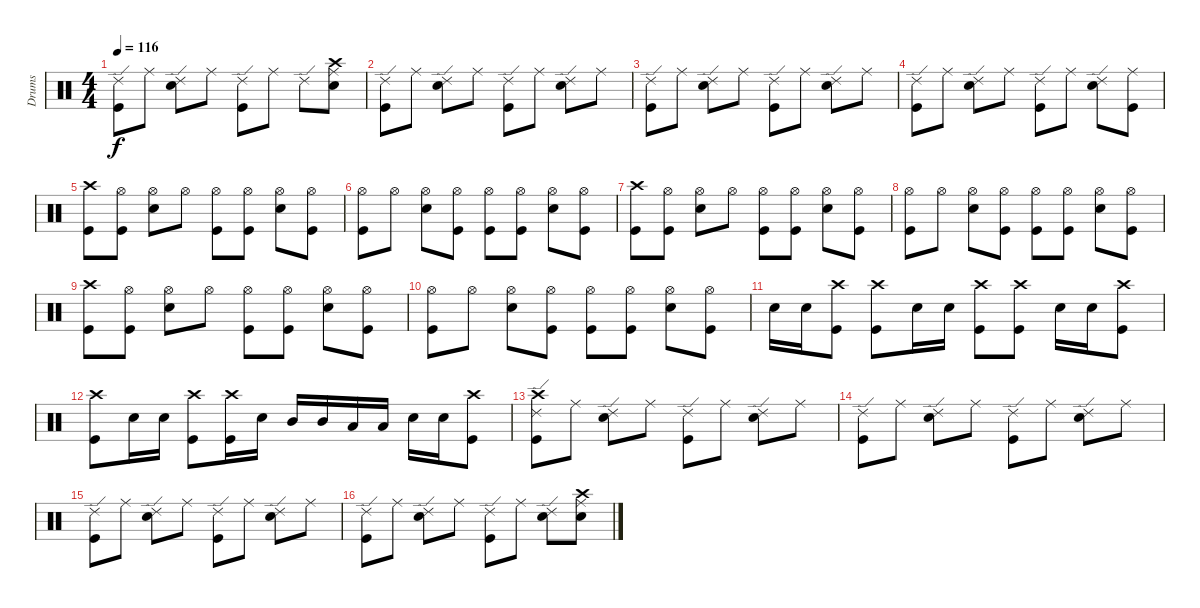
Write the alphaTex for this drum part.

\track ("Drums" "Drums") {instrument percussion}
\staff {score}
\articulation defaults
\ts (4 4)
\tempo 116
\clef neutral
\ks c
("Ride (edge) 2" "Kick (hit)").8{dy f} "Ride (middle)".8 ("Ride (edge) 2" "Electric Snare (hit)").8 "Ride (middle)".8 ("Ride (edge) 2" "Kick (hit)").8 "Ride (middle)".8 "Ride (edge) 2".8 ("Crash high (hit)" "Ride (middle)" "Electric Snare (hit)").8 |
("Ride (edge) 2" "Kick (hit)").8 "Ride (middle)".8 ("Ride (edge) 2" "Electric Snare (hit)").8 "Ride (middle)".8 ("Ride (edge) 2" "Kick (hit)").8 "Ride (middle)".8 ("Ride (edge) 2" "Electric Snare (hit)").8 "Ride (middle)".8 |
("Ride (edge) 2" "Kick (hit)").8 "Ride (middle)".8 ("Ride (edge) 2" "Electric Snare (hit)").8 "Ride (middle)".8 ("Ride (edge) 2" "Kick (hit)").8 "Ride (middle)".8 ("Ride (edge) 2" "Electric Snare (hit)").8 "Ride (middle)".8 |
("Ride (edge) 2" "Kick (hit)").8 "Ride (middle)".8 ("Ride (edge) 2" "Electric Snare (hit)").8 "Ride (middle)".8 ("Ride (edge) 2" "Kick (hit)").8 "Ride (middle)".8 ("Ride (edge) 2" "Electric Snare (hit)").8 ("Ride (middle)" "Kick (hit)").8 |
("Crash high (hit)" "Kick (hit)").8 ("Hi-Hat (open)" "Kick (hit)").8 ("Hi-Hat (open)" "Electric Snare (hit)").8 "Hi-Hat (open)".8 ("Hi-Hat (open)" "Kick (hit)").8 ("Hi-Hat (open)" "Kick (hit)").8 ("Hi-Hat (open)" "Electric Snare (hit)").8 ("Hi-Hat (open)" "Kick (hit)").8 |
("Hi-Hat (open)" "Kick (hit)").8 "Hi-Hat (open)".8 ("Hi-Hat (open)" "Electric Snare (hit)").8 ("Hi-Hat (open)" "Kick (hit)").8 ("Hi-Hat (open)" "Kick (hit)").8 ("Hi-Hat (open)" "Kick (hit)").8 ("Hi-Hat (open)" "Electric Snare (hit)").8 ("Hi-Hat (open)" "Kick (hit)").8 |
("Crash high (hit)" "Kick (hit)").8 ("Hi-Hat (open)" "Kick (hit)").8 ("Hi-Hat (open)" "Electric Snare (hit)").8 "Hi-Hat (open)".8 ("Hi-Hat (open)" "Kick (hit)").8 ("Hi-Hat (open)" "Kick (hit)").8 ("Hi-Hat (open)" "Electric Snare (hit)").8 ("Hi-Hat (open)" "Kick (hit)").8 |
("Hi-Hat (open)" "Kick (hit)").8 "Hi-Hat (open)".8 ("Hi-Hat (open)" "Electric Snare (hit)").8 ("Hi-Hat (open)" "Kick (hit)").8 ("Hi-Hat (open)" "Kick (hit)").8 ("Hi-Hat (open)" "Kick (hit)").8 ("Hi-Hat (open)" "Electric Snare (hit)").8 ("Hi-Hat (open)" "Kick (hit)").8 |
("Crash high (hit)" "Kick (hit)").8 ("Hi-Hat (open)" "Kick (hit)").8 ("Hi-Hat (open)" "Electric Snare (hit)").8 "Hi-Hat (open)".8 ("Hi-Hat (open)" "Kick (hit)").8 ("Hi-Hat (open)" "Kick (hit)").8 ("Hi-Hat (open)" "Electric Snare (hit)").8 ("Hi-Hat (open)" "Kick (hit)").8 |
("Hi-Hat (open)" "Kick (hit)").8 "Hi-Hat (open)".8 ("Hi-Hat (open)" "Electric Snare (hit)").8 ("Hi-Hat (open)" "Kick (hit)").8 ("Hi-Hat (open)" "Kick (hit)").8 ("Hi-Hat (open)" "Kick (hit)").8 ("Hi-Hat (open)" "Electric Snare (hit)").8 ("Hi-Hat (open)" "Kick (hit)").8 |
"Electric Snare (hit)".16 "Electric Snare (hit)".16 ("Crash high (hit)" "Kick (hit)").8 ("Crash high (hit)" "Kick (hit)").8 "Electric Snare (hit)".16 "Electric Snare (hit)".16 ("Crash high (hit)" "Kick (hit)").8 ("Crash high (hit)" "Kick (hit)").8 "Electric Snare (hit)".16 "Electric Snare (hit)".16 ("Crash high (hit)" "Kick (hit)").8 |
("Crash high (hit)" "Kick (hit)").8 "Electric Snare (hit)".16 "Electric Snare (hit)".16 ("Crash high (hit)" "Kick (hit)").8 ("Crash high (hit)" "Kick (hit)").16 "Electric Snare (hit)".16 "Mid Tom (hit)".16 "Mid Tom (hit)".16 "Low Tom (hit)".16 "Low Tom (hit)".16 "Electric Snare (hit)".16 "Electric Snare (hit)".16 ("Crash high (hit)" "Kick (hit)").8 |
("Crash high (hit)" "Ride (edge) 2" "Kick (hit)").8 "Ride (middle)".8 ("Ride (edge) 2" "Electric Snare (hit)").8 "Ride (middle)".8 ("Ride (edge) 2" "Kick (hit)").8 "Ride (middle)".8 ("Ride (edge) 2" "Electric Snare (hit)").8 "Ride (middle)".8 |
("Ride (edge) 2" "Kick (hit)").8 "Ride (middle)".8 ("Ride (edge) 2" "Electric Snare (hit)").8 "Ride (middle)".8 ("Ride (edge) 2" "Kick (hit)").8 "Ride (middle)".8 ("Ride (edge) 2" "Electric Snare (hit)").8 "Ride (middle)".8 |
("Ride (edge) 2" "Kick (hit)").8 "Ride (middle)".8 ("Ride (edge) 2" "Electric Snare (hit)").8 "Ride (middle)".8 ("Ride (edge) 2" "Kick (hit)").8 "Ride (middle)".8 ("Ride (edge) 2" "Electric Snare (hit)").8 "Ride (middle)".8 |
("Ride (edge) 2" "Kick (hit)").8 "Ride (middle)".8 ("Ride (edge) 2" "Electric Snare (hit)").8 "Ride (middle)".8 ("Ride (edge) 2" "Kick (hit)").8 "Ride (middle)".8 ("Ride (edge) 2" "Electric Snare (hit)").8 ("Crash high (hit)" "Ride (middle)" "Electric Snare (hit)").8
